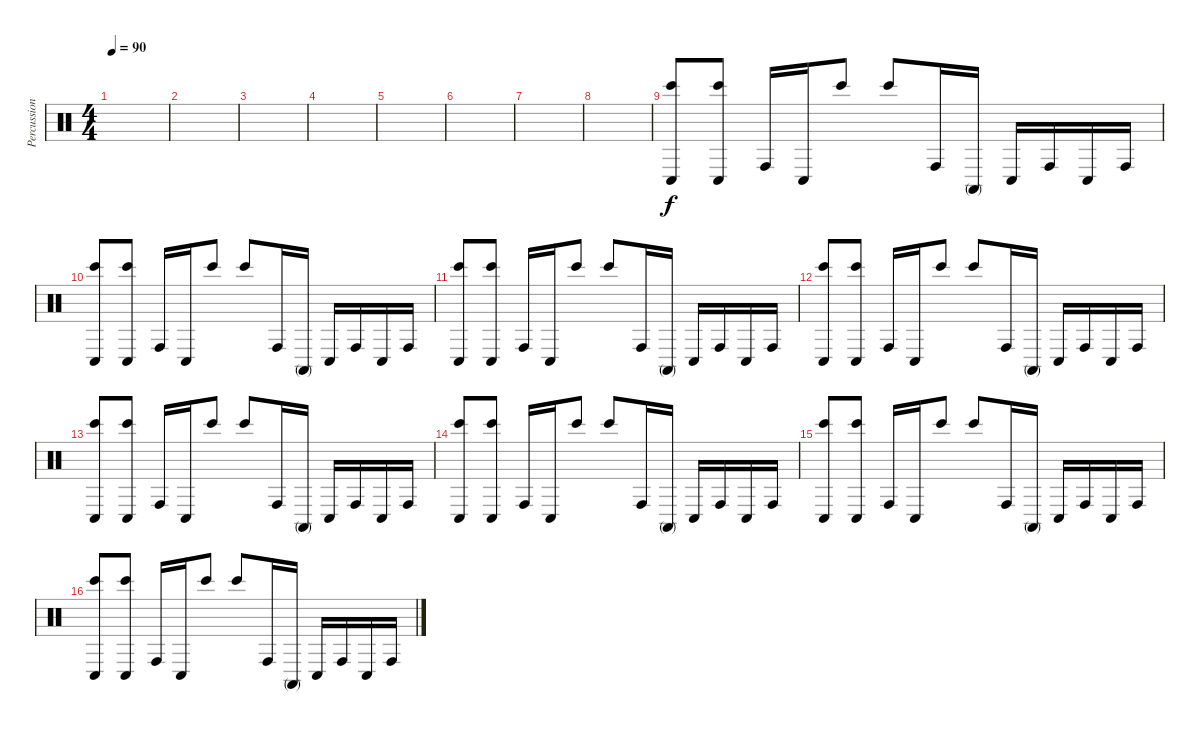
\track ("Percussions" "Percussion") {instrument percussion}
\staff {score}
\articulation defaults
\ts (4 4)
\tempo 90
\clef neutral
\ks c
|
|
|
|
|
|
|
|
("Bongo High (hit)" "Conga low (hit)").8 ("Bongo High (hit)" "Conga low (hit)").8 "Conga high (hit)".16 "Conga low (hit)".16 "Bongo High (hit)".8 "Bongo High (hit)".8 "Conga high (hit)".16 "Conga high (mute)".16 "Conga low (hit)".16 "Conga high (hit)".16 "Conga low (hit)".16 "Conga high (hit)".16 |
("Bongo High (hit)" "Conga low (hit)").8 ("Bongo High (hit)" "Conga low (hit)").8 "Conga high (hit)".16 "Conga low (hit)".16 "Bongo High (hit)".8 "Bongo High (hit)".8 "Conga high (hit)".16 "Conga high (mute)".16 "Conga low (hit)".16 "Conga high (hit)".16 "Conga low (hit)".16 "Conga high (hit)".16 |
("Bongo High (hit)" "Conga low (hit)").8 ("Bongo High (hit)" "Conga low (hit)").8 "Conga high (hit)".16 "Conga low (hit)".16 "Bongo High (hit)".8 "Bongo High (hit)".8 "Conga high (hit)".16 "Conga high (mute)".16 "Conga low (hit)".16 "Conga high (hit)".16 "Conga low (hit)".16 "Conga high (hit)".16 |
("Bongo High (hit)" "Conga low (hit)").8 ("Bongo High (hit)" "Conga low (hit)").8 "Conga high (hit)".16 "Conga low (hit)".16 "Bongo High (hit)".8 "Bongo High (hit)".8 "Conga high (hit)".16 "Conga high (mute)".16 "Conga low (hit)".16 "Conga high (hit)".16 "Conga low (hit)".16 "Conga high (hit)".16 |
("Bongo High (hit)" "Conga low (hit)").8 ("Bongo High (hit)" "Conga low (hit)").8 "Conga high (hit)".16 "Conga low (hit)".16 "Bongo High (hit)".8 "Bongo High (hit)".8 "Conga high (hit)".16 "Conga high (mute)".16 "Conga low (hit)".16 "Conga high (hit)".16 "Conga low (hit)".16 "Conga high (hit)".16 |
("Bongo High (hit)" "Conga low (hit)").8 ("Bongo High (hit)" "Conga low (hit)").8 "Conga high (hit)".16 "Conga low (hit)".16 "Bongo High (hit)".8 "Bongo High (hit)".8 "Conga high (hit)".16 "Conga high (mute)".16 "Conga low (hit)".16 "Conga high (hit)".16 "Conga low (hit)".16 "Conga high (hit)".16 |
("Bongo High (hit)" "Conga low (hit)").8 ("Bongo High (hit)" "Conga low (hit)").8 "Conga high (hit)".16 "Conga low (hit)".16 "Bongo High (hit)".8 "Bongo High (hit)".8 "Conga high (hit)".16 "Conga high (mute)".16 "Conga low (hit)".16 "Conga high (hit)".16 "Conga low (hit)".16 "Conga high (hit)".16 |
("Bongo High (hit)" "Conga low (hit)").8 ("Bongo High (hit)" "Conga low (hit)").8 "Conga high (hit)".16 "Conga low (hit)".16 "Bongo High (hit)".8 "Bongo High (hit)".8 "Conga high (hit)".16 "Conga high (mute)".16 "Conga low (hit)".16 "Conga high (hit)".16 "Conga low (hit)".16 "Conga high (hit)".16
